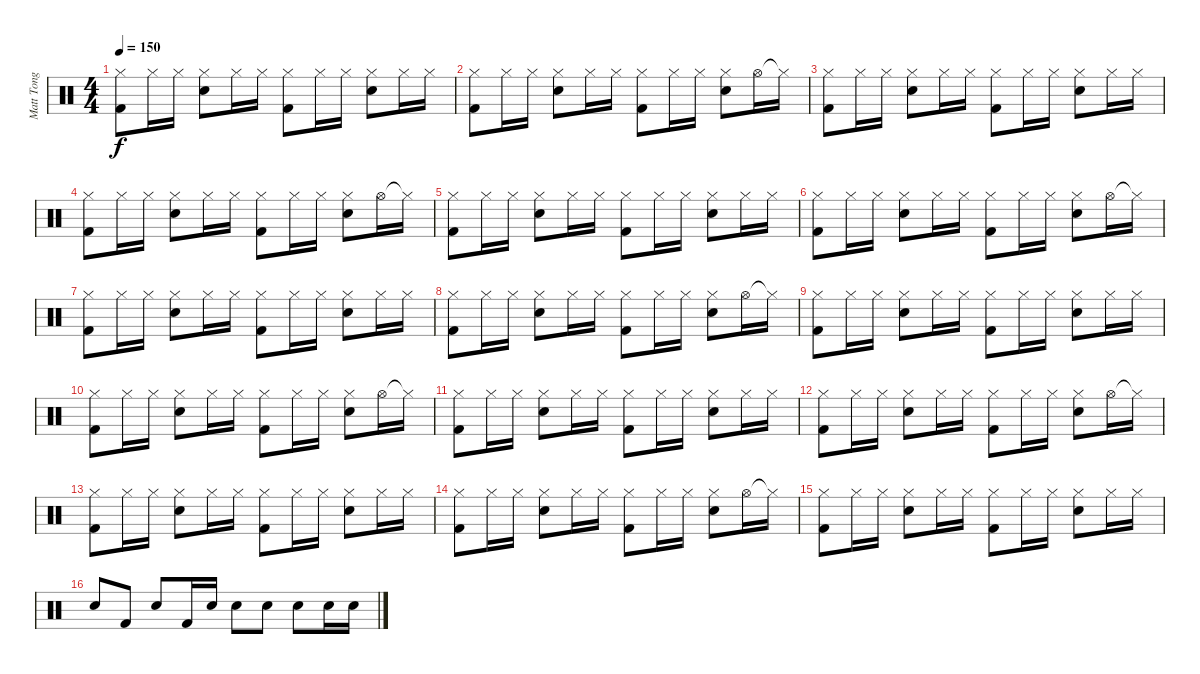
\track ("Matt Tong" "Matt Tong") {instrument percussion}
\staff {score}
\articulation defaults
\ts (4 4)
\tempo 150
\clef neutral
\ks c
("Hi-Hat (closed)" "Kick (hit) 2").8{dy f} "Hi-Hat (closed)".16 "Hi-Hat (closed)".16 ("Hi-Hat (closed)" "Electric Snare (hit)").8 "Hi-Hat (closed)".16 "Hi-Hat (closed)".16 ("Hi-Hat (closed)" "Kick (hit) 2").8 "Hi-Hat (closed)".16 "Hi-Hat (closed)".16 ("Hi-Hat (closed)" "Electric Snare (hit)").8 "Hi-Hat (closed)".16 "Hi-Hat (closed)".16 |
("Hi-Hat (closed)" "Kick (hit) 2").8 "Hi-Hat (closed)".16 "Hi-Hat (closed)".16 ("Hi-Hat (closed)" "Electric Snare (hit)").8 "Hi-Hat (closed)".16 "Hi-Hat (closed)".16 ("Hi-Hat (closed)" "Kick (hit) 2").8 "Hi-Hat (closed)".16 "Hi-Hat (closed)".16 ("Hi-Hat (closed)" "Electric Snare (hit)").8 "Hi-Hat (open)".16 "Hi-Hat (closed)"{t}.16 |
("Hi-Hat (closed)" "Kick (hit) 2").8 "Hi-Hat (closed)".16 "Hi-Hat (closed)".16 ("Hi-Hat (closed)" "Electric Snare (hit)").8 "Hi-Hat (closed)".16 "Hi-Hat (closed)".16 ("Hi-Hat (closed)" "Kick (hit) 2").8 "Hi-Hat (closed)".16 "Hi-Hat (closed)".16 ("Hi-Hat (closed)" "Electric Snare (hit)").8 "Hi-Hat (closed)".16 "Hi-Hat (closed)".16 |
("Hi-Hat (closed)" "Kick (hit) 2").8 "Hi-Hat (closed)".16 "Hi-Hat (closed)".16 ("Hi-Hat (closed)" "Electric Snare (hit)").8 "Hi-Hat (closed)".16 "Hi-Hat (closed)".16 ("Hi-Hat (closed)" "Kick (hit) 2").8 "Hi-Hat (closed)".16 "Hi-Hat (closed)".16 ("Hi-Hat (closed)" "Electric Snare (hit)").8 "Hi-Hat (open)".16 "Hi-Hat (closed)"{t}.16 |
("Hi-Hat (closed)" "Kick (hit) 2").8 "Hi-Hat (closed)".16 "Hi-Hat (closed)".16 ("Hi-Hat (closed)" "Electric Snare (hit)").8 "Hi-Hat (closed)".16 "Hi-Hat (closed)".16 ("Hi-Hat (closed)" "Kick (hit) 2").8 "Hi-Hat (closed)".16 "Hi-Hat (closed)".16 ("Hi-Hat (closed)" "Electric Snare (hit)").8 "Hi-Hat (closed)".16 "Hi-Hat (closed)".16 |
("Hi-Hat (closed)" "Kick (hit) 2").8 "Hi-Hat (closed)".16 "Hi-Hat (closed)".16 ("Hi-Hat (closed)" "Electric Snare (hit)").8 "Hi-Hat (closed)".16 "Hi-Hat (closed)".16 ("Hi-Hat (closed)" "Kick (hit) 2").8 "Hi-Hat (closed)".16 "Hi-Hat (closed)".16 ("Hi-Hat (closed)" "Electric Snare (hit)").8 "Hi-Hat (open)".16 "Hi-Hat (closed)"{t}.16 |
("Hi-Hat (closed)" "Kick (hit) 2").8 "Hi-Hat (closed)".16 "Hi-Hat (closed)".16 ("Hi-Hat (closed)" "Electric Snare (hit)").8 "Hi-Hat (closed)".16 "Hi-Hat (closed)".16 ("Hi-Hat (closed)" "Kick (hit) 2").8 "Hi-Hat (closed)".16 "Hi-Hat (closed)".16 ("Hi-Hat (closed)" "Electric Snare (hit)").8 "Hi-Hat (closed)".16 "Hi-Hat (closed)".16 |
("Hi-Hat (closed)" "Kick (hit) 2").8 "Hi-Hat (closed)".16 "Hi-Hat (closed)".16 ("Hi-Hat (closed)" "Electric Snare (hit)").8 "Hi-Hat (closed)".16 "Hi-Hat (closed)".16 ("Hi-Hat (closed)" "Kick (hit) 2").8 "Hi-Hat (closed)".16 "Hi-Hat (closed)".16 ("Hi-Hat (closed)" "Electric Snare (hit)").8 "Hi-Hat (open)".16 "Hi-Hat (closed)"{t}.16 |
("Hi-Hat (closed)" "Kick (hit) 2").8 "Hi-Hat (closed)".16 "Hi-Hat (closed)".16 ("Hi-Hat (closed)" "Electric Snare (hit)").8 "Hi-Hat (closed)".16 "Hi-Hat (closed)".16 ("Hi-Hat (closed)" "Kick (hit) 2").8 "Hi-Hat (closed)".16 "Hi-Hat (closed)".16 ("Hi-Hat (closed)" "Electric Snare (hit)").8 "Hi-Hat (closed)".16 "Hi-Hat (closed)".16 |
("Hi-Hat (closed)" "Kick (hit) 2").8 "Hi-Hat (closed)".16 "Hi-Hat (closed)".16 ("Hi-Hat (closed)" "Electric Snare (hit)").8 "Hi-Hat (closed)".16 "Hi-Hat (closed)".16 ("Hi-Hat (closed)" "Kick (hit) 2").8 "Hi-Hat (closed)".16 "Hi-Hat (closed)".16 ("Hi-Hat (closed)" "Electric Snare (hit)").8 "Hi-Hat (open)".16 "Hi-Hat (closed)"{t}.16 |
("Hi-Hat (closed)" "Kick (hit) 2").8 "Hi-Hat (closed)".16 "Hi-Hat (closed)".16 ("Hi-Hat (closed)" "Electric Snare (hit)").8 "Hi-Hat (closed)".16 "Hi-Hat (closed)".16 ("Hi-Hat (closed)" "Kick (hit) 2").8 "Hi-Hat (closed)".16 "Hi-Hat (closed)".16 ("Hi-Hat (closed)" "Electric Snare (hit)").8 "Hi-Hat (closed)".16 "Hi-Hat (closed)".16 |
("Hi-Hat (closed)" "Kick (hit) 2").8 "Hi-Hat (closed)".16 "Hi-Hat (closed)".16 ("Hi-Hat (closed)" "Electric Snare (hit)").8 "Hi-Hat (closed)".16 "Hi-Hat (closed)".16 ("Hi-Hat (closed)" "Kick (hit) 2").8 "Hi-Hat (closed)".16 "Hi-Hat (closed)".16 ("Hi-Hat (closed)" "Electric Snare (hit)").8 "Hi-Hat (open)".16 "Hi-Hat (closed)"{t}.16 |
("Hi-Hat (closed)" "Kick (hit) 2").8 "Hi-Hat (closed)".16 "Hi-Hat (closed)".16 ("Hi-Hat (closed)" "Electric Snare (hit)").8 "Hi-Hat (closed)".16 "Hi-Hat (closed)".16 ("Hi-Hat (closed)" "Kick (hit) 2").8 "Hi-Hat (closed)".16 "Hi-Hat (closed)".16 ("Hi-Hat (closed)" "Electric Snare (hit)").8 "Hi-Hat (closed)".16 "Hi-Hat (closed)".16 |
("Hi-Hat (closed)" "Kick (hit) 2").8 "Hi-Hat (closed)".16 "Hi-Hat (closed)".16 ("Hi-Hat (closed)" "Electric Snare (hit)").8 "Hi-Hat (closed)".16 "Hi-Hat (closed)".16 ("Hi-Hat (closed)" "Kick (hit) 2").8 "Hi-Hat (closed)".16 "Hi-Hat (closed)".16 ("Hi-Hat (closed)" "Electric Snare (hit)").8 "Hi-Hat (open)".16 "Hi-Hat (closed)"{t}.16 |
("Hi-Hat (closed)" "Kick (hit) 2").8 "Hi-Hat (closed)".16 "Hi-Hat (closed)".16 ("Hi-Hat (closed)" "Electric Snare (hit)").8 "Hi-Hat (closed)".16 "Hi-Hat (closed)".16 ("Hi-Hat (closed)" "Kick (hit) 2").8 "Hi-Hat (closed)".16 "Hi-Hat (closed)".16 ("Hi-Hat (closed)" "Electric Snare (hit)").8 "Hi-Hat (closed)".16 "Hi-Hat (closed)".16 |
"Electric Snare (hit)".8 "Kick (hit) 2".8 "Electric Snare (hit)".8 "Kick (hit) 2".16 "Electric Snare (hit)".16 "Electric Snare (hit)".8 "Electric Snare (hit)".8 "Electric Snare (hit)".8 "Electric Snare (hit)".16 "Electric Snare (hit)".16
